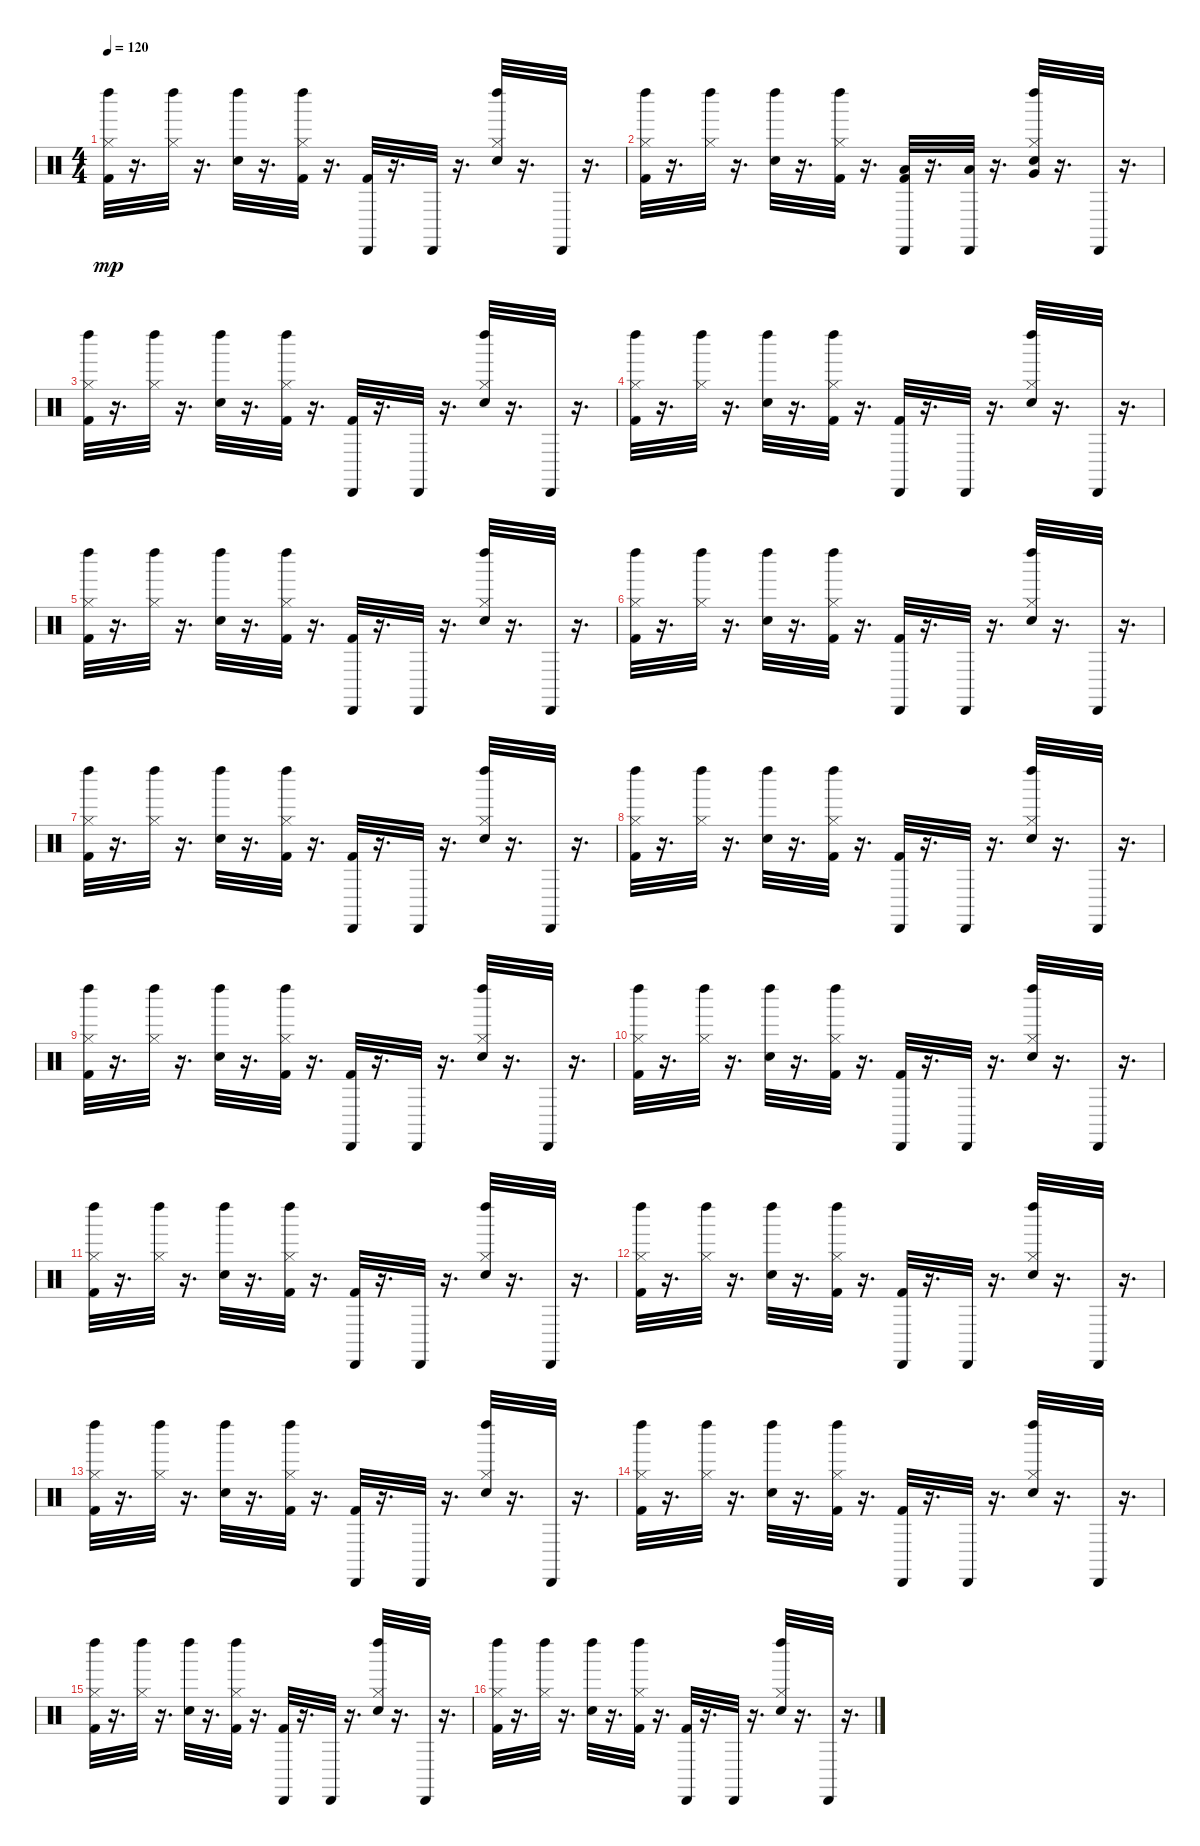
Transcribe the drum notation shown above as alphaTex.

\track "" {instrument percussion}
\staff {score}
\articulation defaults
\ts (4 4)
\tempo 120
\clef neutral
\ks c
("Left Maraca (hit)" "Hi-Hat (closed)" "Kick (hit) 2").32{dy mp} r.16{d} ("Left Maraca (hit)" "Hi-Hat (closed)").32 r.16{d} ("Left Maraca (hit)" "Electric Snare (hit)").32 r.16{d} ("Kick (hit) 2" "Left Maraca (hit)" "Hi-Hat (closed)").32 r.16{d} ("Kick (hit) 2" "Cabasa (hit)").32 r.16{d} "Cabasa (hit)".32 r.16{d} ("Hi-Hat (closed)" "Left Maraca (hit)" "Electric Snare (hit)").32 r.16{d} "Cabasa (hit)".32 r.16{d} |
("Left Maraca (hit)" "Hi-Hat (closed)" "Kick (hit) 2").32 r.16{d} ("Left Maraca (hit)" "Hi-Hat (closed)").32 r.16{d} ("Left Maraca (hit)" "Electric Snare (hit)").32 r.16{d} ("Kick (hit) 2" "Left Maraca (hit)" "Hi-Hat (closed)").32 r.16{d} ("Low Tom (hit)" "Kick (hit) 2" "Cabasa (hit)").32 r.16{d} ("Low Tom (hit)" "Cabasa (hit)").32 r.16{d} ("Very Low Tom (hit)" "Hi-Hat (closed)" "Left Maraca (hit)" "Electric Snare (hit)").32 r.16{d} "Cabasa (hit)".32 r.16{d} |
("Left Maraca (hit)" "Hi-Hat (closed)" "Kick (hit) 2").32 r.16{d} ("Left Maraca (hit)" "Hi-Hat (closed)").32 r.16{d} ("Left Maraca (hit)" "Electric Snare (hit)").32 r.16{d} ("Kick (hit) 2" "Left Maraca (hit)" "Hi-Hat (closed)").32 r.16{d} ("Kick (hit) 2" "Cabasa (hit)").32 r.16{d} "Cabasa (hit)".32 r.16{d} ("Hi-Hat (closed)" "Left Maraca (hit)" "Electric Snare (hit)").32 r.16{d} "Cabasa (hit)".32 r.16{d} |
("Left Maraca (hit)" "Hi-Hat (closed)" "Kick (hit) 2").32 r.16{d} ("Left Maraca (hit)" "Hi-Hat (closed)").32 r.16{d} ("Left Maraca (hit)" "Electric Snare (hit)").32 r.16{d} ("Kick (hit) 2" "Left Maraca (hit)" "Hi-Hat (closed)").32 r.16{d} ("Kick (hit) 2" "Cabasa (hit)").32 r.16{d} "Cabasa (hit)".32 r.16{d} ("Hi-Hat (closed)" "Left Maraca (hit)" "Electric Snare (hit)").32 r.16{d} "Cabasa (hit)".32 r.16{d} |
("Left Maraca (hit)" "Hi-Hat (closed)" "Kick (hit) 2").32 r.16{d} ("Left Maraca (hit)" "Hi-Hat (closed)").32 r.16{d} ("Left Maraca (hit)" "Electric Snare (hit)").32 r.16{d} ("Kick (hit) 2" "Left Maraca (hit)" "Hi-Hat (closed)").32 r.16{d} ("Kick (hit) 2" "Cabasa (hit)").32 r.16{d} "Cabasa (hit)".32 r.16{d} ("Hi-Hat (closed)" "Left Maraca (hit)" "Electric Snare (hit)").32 r.16{d} "Cabasa (hit)".32 r.16{d} |
("Left Maraca (hit)" "Hi-Hat (closed)" "Kick (hit) 2").32 r.16{d} ("Left Maraca (hit)" "Hi-Hat (closed)").32 r.16{d} ("Left Maraca (hit)" "Electric Snare (hit)").32 r.16{d} ("Kick (hit) 2" "Left Maraca (hit)" "Hi-Hat (closed)").32 r.16{d} ("Kick (hit) 2" "Cabasa (hit)").32 r.16{d} "Cabasa (hit)".32 r.16{d} ("Hi-Hat (closed)" "Left Maraca (hit)" "Electric Snare (hit)").32 r.16{d} "Cabasa (hit)".32 r.16{d} |
("Left Maraca (hit)" "Hi-Hat (closed)" "Kick (hit) 2").32 r.16{d} ("Left Maraca (hit)" "Hi-Hat (closed)").32 r.16{d} ("Left Maraca (hit)" "Electric Snare (hit)").32 r.16{d} ("Kick (hit) 2" "Left Maraca (hit)" "Hi-Hat (closed)").32 r.16{d} ("Kick (hit) 2" "Cabasa (hit)").32 r.16{d} "Cabasa (hit)".32 r.16{d} ("Hi-Hat (closed)" "Left Maraca (hit)" "Electric Snare (hit)").32 r.16{d} "Cabasa (hit)".32 r.16{d} |
("Left Maraca (hit)" "Hi-Hat (closed)" "Kick (hit) 2").32 r.16{d} ("Left Maraca (hit)" "Hi-Hat (closed)").32 r.16{d} ("Left Maraca (hit)" "Electric Snare (hit)").32 r.16{d} ("Kick (hit) 2" "Left Maraca (hit)" "Hi-Hat (closed)").32 r.16{d} ("Kick (hit) 2" "Cabasa (hit)").32 r.16{d} "Cabasa (hit)".32 r.16{d} ("Hi-Hat (closed)" "Left Maraca (hit)" "Electric Snare (hit)").32 r.16{d} "Cabasa (hit)".32 r.16{d} |
("Left Maraca (hit)" "Hi-Hat (closed)" "Kick (hit) 2").32 r.16{d} ("Left Maraca (hit)" "Hi-Hat (closed)").32 r.16{d} ("Left Maraca (hit)" "Electric Snare (hit)").32 r.16{d} ("Kick (hit) 2" "Left Maraca (hit)" "Hi-Hat (closed)").32 r.16{d} ("Kick (hit) 2" "Cabasa (hit)").32 r.16{d} "Cabasa (hit)".32 r.16{d} ("Hi-Hat (closed)" "Left Maraca (hit)" "Electric Snare (hit)").32 r.16{d} "Cabasa (hit)".32 r.16{d} |
("Left Maraca (hit)" "Hi-Hat (closed)" "Kick (hit) 2").32 r.16{d} ("Left Maraca (hit)" "Hi-Hat (closed)").32 r.16{d} ("Left Maraca (hit)" "Electric Snare (hit)").32 r.16{d} ("Kick (hit) 2" "Left Maraca (hit)" "Hi-Hat (closed)").32 r.16{d} ("Kick (hit) 2" "Cabasa (hit)").32 r.16{d} "Cabasa (hit)".32 r.16{d} ("Hi-Hat (closed)" "Left Maraca (hit)" "Electric Snare (hit)").32 r.16{d} "Cabasa (hit)".32 r.16{d} |
("Left Maraca (hit)" "Hi-Hat (closed)" "Kick (hit) 2").32 r.16{d} ("Left Maraca (hit)" "Hi-Hat (closed)").32 r.16{d} ("Left Maraca (hit)" "Electric Snare (hit)").32 r.16{d} ("Kick (hit) 2" "Left Maraca (hit)" "Hi-Hat (closed)").32 r.16{d} ("Kick (hit) 2" "Cabasa (hit)").32 r.16{d} "Cabasa (hit)".32 r.16{d} ("Hi-Hat (closed)" "Left Maraca (hit)" "Electric Snare (hit)").32 r.16{d} "Cabasa (hit)".32 r.16{d} |
("Left Maraca (hit)" "Hi-Hat (closed)" "Kick (hit) 2").32 r.16{d} ("Left Maraca (hit)" "Hi-Hat (closed)").32 r.16{d} ("Left Maraca (hit)" "Electric Snare (hit)").32 r.16{d} ("Kick (hit) 2" "Left Maraca (hit)" "Hi-Hat (closed)").32 r.16{d} ("Kick (hit) 2" "Cabasa (hit)").32 r.16{d} "Cabasa (hit)".32 r.16{d} ("Hi-Hat (closed)" "Left Maraca (hit)" "Electric Snare (hit)").32 r.16{d} "Cabasa (hit)".32 r.16{d} |
("Left Maraca (hit)" "Hi-Hat (closed)" "Kick (hit) 2").32 r.16{d} ("Left Maraca (hit)" "Hi-Hat (closed)").32 r.16{d} ("Left Maraca (hit)" "Electric Snare (hit)").32 r.16{d} ("Kick (hit) 2" "Left Maraca (hit)" "Hi-Hat (closed)").32 r.16{d} ("Kick (hit) 2" "Cabasa (hit)").32 r.16{d} "Cabasa (hit)".32 r.16{d} ("Hi-Hat (closed)" "Left Maraca (hit)" "Electric Snare (hit)").32 r.16{d} "Cabasa (hit)".32 r.16{d} |
("Left Maraca (hit)" "Hi-Hat (closed)" "Kick (hit) 2").32 r.16{d} ("Left Maraca (hit)" "Hi-Hat (closed)").32 r.16{d} ("Left Maraca (hit)" "Electric Snare (hit)").32 r.16{d} ("Kick (hit) 2" "Left Maraca (hit)" "Hi-Hat (closed)").32 r.16{d} ("Kick (hit) 2" "Cabasa (hit)").32 r.16{d} "Cabasa (hit)".32 r.16{d} ("Hi-Hat (closed)" "Left Maraca (hit)" "Electric Snare (hit)").32 r.16{d} "Cabasa (hit)".32 r.16{d} |
("Left Maraca (hit)" "Hi-Hat (closed)" "Kick (hit) 2").32 r.16{d} ("Left Maraca (hit)" "Hi-Hat (closed)").32 r.16{d} ("Left Maraca (hit)" "Electric Snare (hit)").32 r.16{d} ("Kick (hit) 2" "Left Maraca (hit)" "Hi-Hat (closed)").32 r.16{d} ("Kick (hit) 2" "Cabasa (hit)").32 r.16{d} "Cabasa (hit)".32 r.16{d} ("Hi-Hat (closed)" "Left Maraca (hit)" "Electric Snare (hit)").32 r.16{d} "Cabasa (hit)".32 r.16{d} |
("Left Maraca (hit)" "Hi-Hat (closed)" "Kick (hit) 2").32 r.16{d} ("Left Maraca (hit)" "Hi-Hat (closed)").32 r.16{d} ("Left Maraca (hit)" "Electric Snare (hit)").32 r.16{d} ("Kick (hit) 2" "Left Maraca (hit)" "Hi-Hat (closed)").32 r.16{d} ("Kick (hit) 2" "Cabasa (hit)").32 r.16{d} "Cabasa (hit)".32 r.16{d} ("Hi-Hat (closed)" "Left Maraca (hit)" "Electric Snare (hit)").32 r.16{d} "Cabasa (hit)".32 r.16{d}
